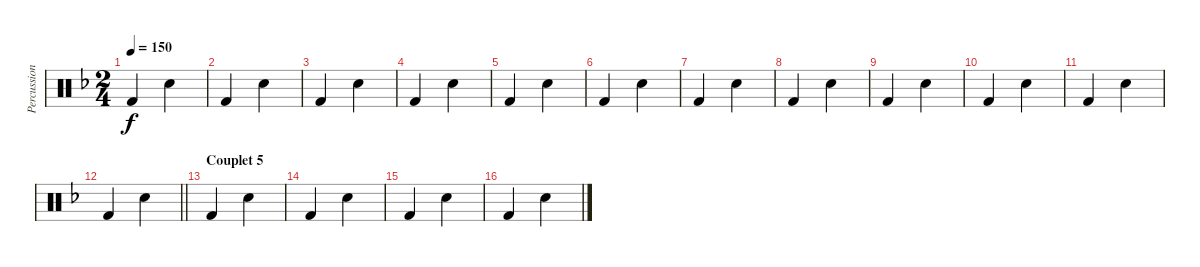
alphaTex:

\track ("Percussions" "Percussion") {instrument percussion}
\staff {score}
\articulation defaults
\ts (2 4)
\tempo 150
\clef neutral
\ks f "Kick (hit) 2".4{dy f} "Snare (hit) 2".4
|
"Kick (hit) 2".4 "Snare (hit) 2".4 |
"Kick (hit) 2".4 "Snare (hit) 2".4 |
"Kick (hit) 2".4 "Snare (hit) 2".4 |
"Kick (hit) 2".4 "Snare (hit) 2".4 |
"Kick (hit) 2".4 "Snare (hit) 2".4 |
"Kick (hit) 2".4 "Snare (hit) 2".4 |
"Kick (hit) 2".4 "Snare (hit) 2".4 |
"Kick (hit) 2".4 "Snare (hit) 2".4 |
"Kick (hit) 2".4 "Snare (hit) 2".4 |
"Kick (hit) 2".4 "Snare (hit) 2".4 |
\barLineRight lightlight "Kick (hit) 2".4 "Snare (hit) 2".4
|
\section ("" "Couplet 5")
"Kick (hit) 2".4 "Snare (hit) 2".4 |
"Kick (hit) 2".4 "Snare (hit) 2".4 |
"Kick (hit) 2".4 "Snare (hit) 2".4 |
"Kick (hit) 2".4 "Snare (hit) 2".4
